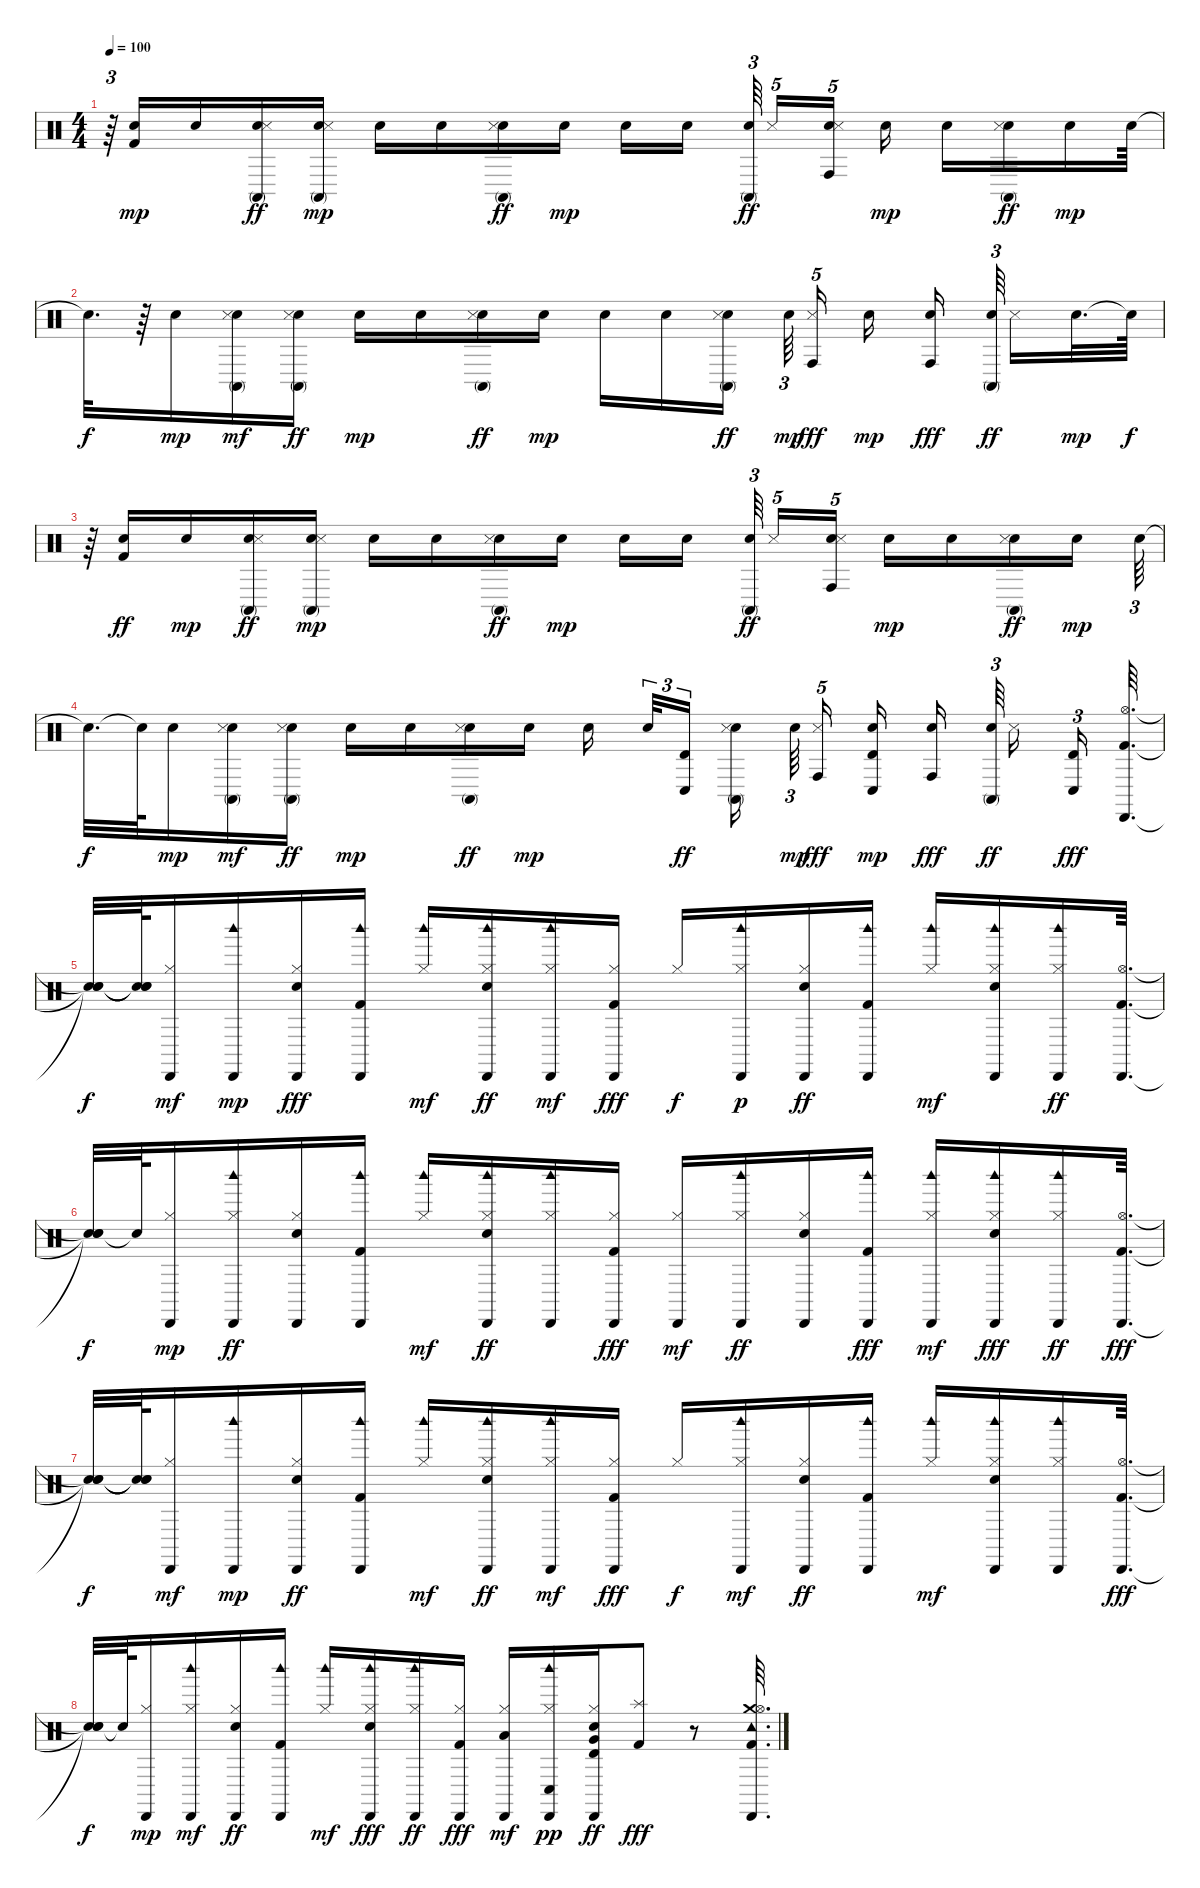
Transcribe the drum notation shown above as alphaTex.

\track "" {instrument percussion}
\staff {score}
\articulation defaults
\ts (4 4)
\tempo 100
\clef neutral
\ks c
r.64{tu (3 2) dy fff} ("Kick (hit) 2" "Hand Clap (hit)").16{dy mp} "Hand Clap (hit)".16 ("Hand Clap (hit)" "Conga high (mute)" "Snare (side stick) 3").16{dy ff} ("Hand Clap (hit)" "Snare (side stick) 3" "Conga high (mute)").16{dy mp} "Hand Clap (hit)".16 "Hand Clap (hit)".16 ("Hand Clap (hit)" "Snare (side stick) 3" "Conga high (mute)").16{dy ff} "Hand Clap (hit)".16{dy mp} "Hand Clap (hit)".16 "Hand Clap (hit)".16{beam splitsecondary} ("Hand Clap (hit)" "Conga high (mute)").64{tu (3 2) dy ff} "Snare (side stick) 3".16{tu (5 4)} ("Hand Clap (hit)" "Conga high (hit)" "Snare (side stick) 3").16{tu (5 4) beam splitsecondary} "Hand Clap (hit)".16{dy mp} "Hand Clap (hit)".16 ("Hand Clap (hit)" "Conga high (mute)" "Snare (side stick) 3").16{dy ff} "Hand Clap (hit)".16{dy mp} "Hand Clap (hit)".64 |
"Snare (hit)"{t}.32{d dy f} r.64 "Hand Clap (hit)".16{dy mp} ("Hand Clap (hit)" "Conga high (mute)" "Snare (side stick) 3").16{dy mf} ("Hand Clap (hit)" "Conga high (mute)" "Snare (side stick) 3").16{dy ff} "Hand Clap (hit)".16{dy mp} "Hand Clap (hit)".16 ("Hand Clap (hit)" "Snare (side stick) 3" "Conga high (mute)").16{dy ff} "Hand Clap (hit)".16{dy mp} "Hand Clap (hit)".16 "Hand Clap (hit)".16 ("Hand Clap (hit)" "Snare (side stick) 3" "Conga high (mute)").16{dy ff beam splitsecondary} "Hand Clap (hit)".64{tu (3 2) dy mp} ("Snare (side stick) 3" "Conga high (hit)").16{tu (5 4) dy fff beam splitsecondary} "Hand Clap (hit)".16{dy mp} ("Hand Clap (hit)" "Conga high (hit)").16{dy fff beam splitsecondary} ("Hand Clap (hit)" "Conga high (mute)").64{tu (3 2) dy ff beam splitsecondary} "Snare (side stick) 3".16 "Hand Clap (hit)".32{d dy mp} "Snare (hit)"{t}.64{dy f} |
r.64 ("Hand Clap (hit)" "Kick (hit) 2").16{dy ff} "Hand Clap (hit)".16{dy mp} ("Hand Clap (hit)" "Conga high (mute)" "Snare (side stick) 3").16{dy ff} ("Hand Clap (hit)" "Snare (side stick) 3" "Conga high (mute)").16{dy mp} "Hand Clap (hit)".16 "Hand Clap (hit)".16 ("Hand Clap (hit)" "Snare (side stick) 3" "Conga high (mute)").16{dy ff} "Hand Clap (hit)".16{dy mp} "Hand Clap (hit)".16 "Hand Clap (hit)".16{beam splitsecondary} ("Hand Clap (hit)" "Conga high (mute)").64{tu (3 2) dy ff} "Snare (side stick) 3".16{tu (5 4)} ("Hand Clap (hit)" "Conga high (hit)" "Snare (side stick) 3").16{tu (5 4)} "Hand Clap (hit)".16{dy mp} "Hand Clap (hit)".16 ("Hand Clap (hit)" "Conga high (mute)" "Snare (side stick) 3").16{dy ff} "Hand Clap (hit)".16{dy mp} "Hand Clap (hit)".64{tu (3 2)} |
"Snare (hit)"{t}.32{d dy f} "Snare (hit)"{t}.64 "Hand Clap (hit)".16{dy mp} ("Hand Clap (hit)" "Conga high (mute)" "Snare (side stick) 3").16{dy mf} ("Hand Clap (hit)" "Conga high (mute)" "Snare (side stick) 3").16{dy ff} "Hand Clap (hit)".16{dy mp} "Hand Clap (hit)".16 ("Hand Clap (hit)" "Snare (side stick) 3" "Conga high (mute)").16{dy ff} "Hand Clap (hit)".16{dy mp} "Hand Clap (hit)".16{beam splitsecondary} "Hand Clap (hit)".32{tu (3 2)} ("Timbale high (hit)" "Conga low (hit)").16{tu (3 2) dy ff beam splitsecondary} ("Hand Clap (hit)" "Snare (side stick) 3" "Conga high (mute)").16{beam splitsecondary} "Hand Clap (hit)".64{tu (3 2) dy mp} ("Snare (side stick) 3" "Conga high (hit)").16{tu (5 4) dy fff beam splitsecondary} ("Conga low (hit)" "Timbale high (hit)" "Hand Clap (hit)").16{dy mp} ("Hand Clap (hit)" "Conga high (hit)").16{dy fff beam splitsecondary} ("Hand Clap (hit)" "Conga high (mute)").64{tu (3 2) dy ff beam splitsecondary} "Snare (side stick) 3".16{beam splitsecondary} ("Timbale high (hit)" "Conga low (hit)").16{tu (3 2) dy fff} ("Hi-Hat (open)" "Kick (hit) 2" "Cabasa (hit)").64{d} |
("Snare (hit)"{t} "Snare (hit)"{t} "Snare (hit)"{t}).32{dy f} ("Snare (hit)"{t} "Snare (hit)"{t} "Snare (hit)"{t}).64 ("Hi-Hat (closed)" "Cabasa (hit)").16{dy mf} ("Woodblock high (hit)" "Cabasa (hit)").16{dy mp} ("Cabasa (hit)" "Hi-Hat (closed)" "Electric Snare (hit)").16{dy fff} ("Cabasa (hit)" "Woodblock high (hit)" "Kick (hit) 2").16 ("Hi-Hat (closed)" "Woodblock high (hit)").16{dy mf} ("Woodblock high (hit)" "Cabasa (hit)" "Electric Snare (hit)" "Hi-Hat (closed)").16{dy ff} ("Cabasa (hit)" "Woodblock high (hit)" "Hi-Hat (closed)").16{dy mf} ("Hi-Hat (closed)" "Cabasa (hit)" "Kick (hit) 2").16{dy fff} "Hi-Hat (closed)".16{dy f} ("Woodblock high (hit)" "Cabasa (hit)" "Hi-Hat (closed)").16{dy p} ("Cabasa (hit)" "Electric Snare (hit)" "Hi-Hat (closed)").16{dy ff} ("Woodblock high (hit)" "Cabasa (hit)" "Kick (hit) 2").16 ("Hi-Hat (closed)" "Woodblock high (hit)").16{dy mf} ("Electric Snare (hit)" "Woodblock high (hit)" "Hi-Hat (closed)" "Cabasa (hit)").16 ("Woodblock high (hit)" "Cabasa (hit)" "Hi-Hat (closed)").16{dy ff} ("Kick (hit) 2" "Hi-Hat (open)" "Cabasa (hit)").64{d} |
("Snare (hit)"{t} "Snare (hit)"{t} "Snare (hit)"{t}).32{dy f} "Snare (hit)"{t}.64 ("Hi-Hat (closed)" "Cabasa (hit)").16{dy mp} ("Cabasa (hit)" "Hi-Hat (closed)" "Woodblock high (hit)").16{dy ff} ("Hi-Hat (closed)" "Cabasa (hit)" "Electric Snare (hit)").16 ("Kick (hit) 2" "Woodblock high (hit)" "Cabasa (hit)").16 ("Woodblock high (hit)" "Hi-Hat (closed)").16{dy mf} ("Cabasa (hit)" "Electric Snare (hit)" "Woodblock high (hit)" "Hi-Hat (closed)").16{dy ff} ("Hi-Hat (closed)" "Woodblock high (hit)" "Cabasa (hit)").16 ("Cabasa (hit)" "Kick (hit) 2" "Hi-Hat (closed)").16{dy fff} ("Cabasa (hit)" "Hi-Hat (closed)").16{dy mf} ("Cabasa (hit)" "Hi-Hat (closed)" "Woodblock high (hit)").16{dy ff} ("Cabasa (hit)" "Electric Snare (hit)" "Hi-Hat (closed)").16 ("Kick (hit) 2" "Woodblock high (hit)" "Cabasa (hit)").16{dy fff} ("Cabasa (hit)" "Hi-Hat (closed)" "Woodblock high (hit)").16{dy mf} ("Cabasa (hit)" "Hi-Hat (closed)" "Electric Snare (hit)" "Woodblock high (hit)").16{dy fff} ("Woodblock high (hit)" "Hi-Hat (closed)" "Cabasa (hit)").16{dy ff} ("Hi-Hat (open)" "Kick (hit) 2" "Cabasa (hit)").64{d dy fff} |
("Snare (hit)"{t} "Snare (hit)"{t} "Snare (hit)"{t}).32{dy f} ("Snare (hit)"{t} "Snare (hit)"{t} "Snare (hit)"{t}).64 ("Hi-Hat (closed)" "Cabasa (hit)").16{dy mf} ("Woodblock high (hit)" "Cabasa (hit)").16{dy mp} ("Electric Snare (hit)" "Hi-Hat (closed)" "Cabasa (hit)").16{dy ff} ("Kick (hit) 2" "Cabasa (hit)" "Woodblock high (hit)").16 ("Hi-Hat (closed)" "Woodblock high (hit)").16{dy mf} ("Hi-Hat (closed)" "Woodblock high (hit)" "Cabasa (hit)" "Electric Snare (hit)").16{dy ff} ("Cabasa (hit)" "Woodblock high (hit)" "Hi-Hat (closed)").16{dy mf} ("Cabasa (hit)" "Hi-Hat (closed)" "Kick (hit) 2").16{dy fff} "Hi-Hat (closed)".16{dy f} ("Hi-Hat (closed)" "Woodblock high (hit)" "Cabasa (hit)").16{dy mf} ("Cabasa (hit)" "Hi-Hat (closed)" "Electric Snare (hit)").16{dy ff} ("Cabasa (hit)" "Kick (hit) 2" "Woodblock high (hit)").16 ("Hi-Hat (closed)" "Woodblock high (hit)").16{dy mf} ("Hi-Hat (closed)" "Electric Snare (hit)" "Woodblock high (hit)" "Cabasa (hit)").16 ("Woodblock high (hit)" "Hi-Hat (closed)" "Cabasa (hit)").16 ("Hi-Hat (open)" "Cabasa (hit)" "Kick (hit) 2").64{d dy fff} |
("Snare (hit)"{t} "Snare (hit)"{t} "Snare (hit)"{t}).32{dy f} "Snare (hit)"{t}.64 ("Cabasa (hit)" "Hi-Hat (closed)").16{dy mp} ("Cabasa (hit)" "Woodblock high (hit)" "Hi-Hat (closed)").16{dy mf} ("Electric Snare (hit)" "Cabasa (hit)" "Hi-Hat (closed)").16{dy ff} ("Kick (hit) 2" "Woodblock high (hit)" "Cabasa (hit)").16 ("Woodblock high (hit)" "Hi-Hat (closed)").16{dy mf} ("Hi-Hat (closed)" "Cabasa (hit)" "Woodblock high (hit)" "Electric Snare (hit)").16{dy fff} ("Cabasa (hit)" "Hi-Hat (closed)" "Woodblock high (hit)").16{dy ff} ("Cabasa (hit)" "Kick (hit) 2" "Hi-Hat (closed)").16{dy fff} ("Low Tom (hit)" "Cabasa (hit)" "Hi-Hat (closed)").16{dy mf} ("Woodblock high (hit)" "Cabasa (hit)" "Conga low (hit)" "Hi-Hat (closed)").16{dy pp} ("Very Low Tom (hit)" "Timbale high (hit)" "Cabasa (hit)" "Electric Snare (hit)" "Hi-Hat (closed)").16{dy ff} ("Splash (hit)" "Kick (hit) 2").8{dy fff} r.8 ("Crash medium (hit)" "Cabasa (hit)" "Kick (hit) 2" "Tambourine (hit)" "Hi-Hat (open)").64{d}
